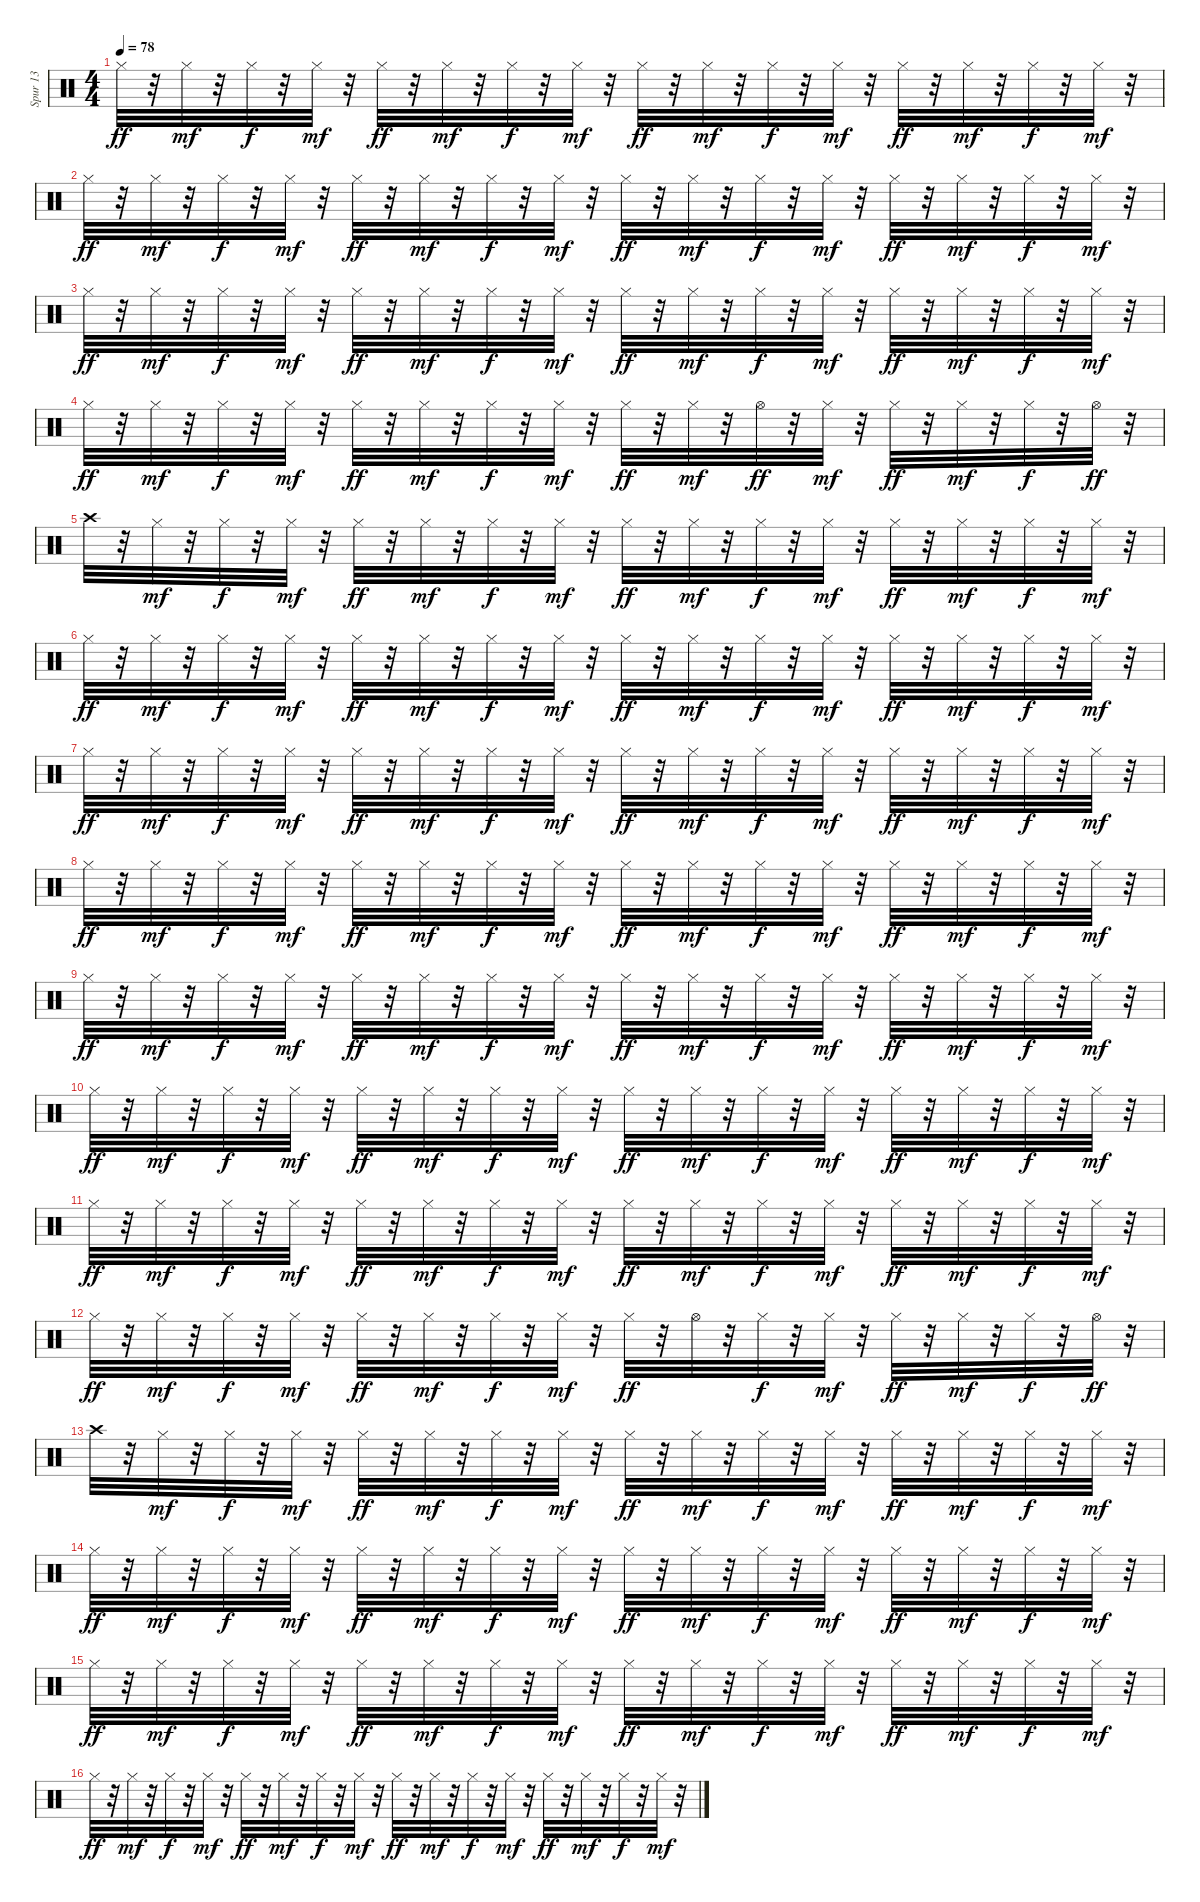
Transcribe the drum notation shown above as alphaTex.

\track ("Spur 13" "Spur 13") {instrument percussion}
\staff {score}
\articulation defaults
\ts (4 4)
\tempo 78
\clef neutral
\ks c "Hi-Hat (closed)".32{dy ff}
r.32 "Hi-Hat (closed)".32{dy mf} r.32 "Hi-Hat (closed)".32{dy f} r.32 "Hi-Hat (closed)".32{dy mf} r.32 "Hi-Hat (closed)".32{dy ff} r.32 "Hi-Hat (closed)".32{dy mf} r.32 "Hi-Hat (closed)".32{dy f} r.32 "Hi-Hat (closed)".32{dy mf} r.32 "Hi-Hat (closed)".32{dy ff} r.32 "Hi-Hat (closed)".32{dy mf} r.32 "Hi-Hat (closed)".32{dy f} r.32 "Hi-Hat (closed)".32{dy mf} r.32 "Hi-Hat (closed)".32{dy ff} r.32 "Hi-Hat (closed)".32{dy mf} r.32 "Hi-Hat (closed)".32{dy f} r.32 "Hi-Hat (closed)".32{dy mf} r.32 |
"Hi-Hat (closed)".32{dy ff} r.32 "Hi-Hat (closed)".32{dy mf} r.32 "Hi-Hat (closed)".32{dy f} r.32 "Hi-Hat (closed)".32{dy mf} r.32 "Hi-Hat (closed)".32{dy ff} r.32 "Hi-Hat (closed)".32{dy mf} r.32 "Hi-Hat (closed)".32{dy f} r.32 "Hi-Hat (closed)".32{dy mf} r.32 "Hi-Hat (closed)".32{dy ff} r.32 "Hi-Hat (closed)".32{dy mf} r.32 "Hi-Hat (closed)".32{dy f} r.32 "Hi-Hat (closed)".32{dy mf} r.32 "Hi-Hat (closed)".32{dy ff} r.32 "Hi-Hat (closed)".32{dy mf} r.32 "Hi-Hat (closed)".32{dy f} r.32 "Hi-Hat (closed)".32{dy mf} r.32 |
"Hi-Hat (closed)".32{dy ff} r.32 "Hi-Hat (closed)".32{dy mf} r.32 "Hi-Hat (closed)".32{dy f} r.32 "Hi-Hat (closed)".32{dy mf} r.32 "Hi-Hat (closed)".32{dy ff} r.32 "Hi-Hat (closed)".32{dy mf} r.32 "Hi-Hat (closed)".32{dy f} r.32 "Hi-Hat (closed)".32{dy mf} r.32 "Hi-Hat (closed)".32{dy ff} r.32 "Hi-Hat (closed)".32{dy mf} r.32 "Hi-Hat (closed)".32{dy f} r.32 "Hi-Hat (closed)".32{dy mf} r.32 "Hi-Hat (closed)".32{dy ff} r.32 "Hi-Hat (closed)".32{dy mf} r.32 "Hi-Hat (closed)".32{dy f} r.32 "Hi-Hat (closed)".32{dy mf} r.32 |
"Hi-Hat (closed)".32{dy ff} r.32 "Hi-Hat (closed)".32{dy mf} r.32 "Hi-Hat (closed)".32{dy f} r.32 "Hi-Hat (closed)".32{dy mf} r.32 "Hi-Hat (closed)".32{dy ff} r.32 "Hi-Hat (closed)".32{dy mf} r.32 "Hi-Hat (closed)".32{dy f} r.32 "Hi-Hat (closed)".32{dy mf} r.32 "Hi-Hat (closed)".32{dy ff} r.32 "Hi-Hat (closed)".32{dy mf} r.32 "Hi-Hat (open)".32{dy ff} r.32 "Hi-Hat (closed)".32{dy mf} r.32 "Hi-Hat (closed)".32{dy ff} r.32 "Hi-Hat (closed)".32{dy mf} r.32 "Hi-Hat (closed)".32{dy f} r.32 "Hi-Hat (open)".32{dy ff} r.32 |
"Crash high (hit)".32 r.32 "Hi-Hat (closed)".32{dy mf} r.32 "Hi-Hat (closed)".32{dy f} r.32 "Hi-Hat (closed)".32{dy mf} r.32 "Hi-Hat (closed)".32{dy ff} r.32 "Hi-Hat (closed)".32{dy mf} r.32 "Hi-Hat (closed)".32{dy f} r.32 "Hi-Hat (closed)".32{dy mf} r.32 "Hi-Hat (closed)".32{dy ff} r.32 "Hi-Hat (closed)".32{dy mf} r.32 "Hi-Hat (closed)".32{dy f} r.32 "Hi-Hat (closed)".32{dy mf} r.32 "Hi-Hat (closed)".32{dy ff} r.32 "Hi-Hat (closed)".32{dy mf} r.32 "Hi-Hat (closed)".32{dy f} r.32 "Hi-Hat (closed)".32{dy mf} r.32 |
"Hi-Hat (closed)".32{dy ff} r.32 "Hi-Hat (closed)".32{dy mf} r.32 "Hi-Hat (closed)".32{dy f} r.32 "Hi-Hat (closed)".32{dy mf} r.32 "Hi-Hat (closed)".32{dy ff} r.32 "Hi-Hat (closed)".32{dy mf} r.32 "Hi-Hat (closed)".32{dy f} r.32 "Hi-Hat (closed)".32{dy mf} r.32 "Hi-Hat (closed)".32{dy ff} r.32 "Hi-Hat (closed)".32{dy mf} r.32 "Hi-Hat (closed)".32{dy f} r.32 "Hi-Hat (closed)".32{dy mf} r.32 "Hi-Hat (closed)".32{dy ff} r.32 "Hi-Hat (closed)".32{dy mf} r.32 "Hi-Hat (closed)".32{dy f} r.32 "Hi-Hat (closed)".32{dy mf} r.32 |
"Hi-Hat (closed)".32{dy ff} r.32 "Hi-Hat (closed)".32{dy mf} r.32 "Hi-Hat (closed)".32{dy f} r.32 "Hi-Hat (closed)".32{dy mf} r.32 "Hi-Hat (closed)".32{dy ff} r.32 "Hi-Hat (closed)".32{dy mf} r.32 "Hi-Hat (closed)".32{dy f} r.32 "Hi-Hat (closed)".32{dy mf} r.32 "Hi-Hat (closed)".32{dy ff} r.32 "Hi-Hat (closed)".32{dy mf} r.32 "Hi-Hat (closed)".32{dy f} r.32 "Hi-Hat (closed)".32{dy mf} r.32 "Hi-Hat (closed)".32{dy ff} r.32 "Hi-Hat (closed)".32{dy mf} r.32 "Hi-Hat (closed)".32{dy f} r.32 "Hi-Hat (closed)".32{dy mf} r.32 |
"Hi-Hat (closed)".32{dy ff} r.32 "Hi-Hat (closed)".32{dy mf} r.32 "Hi-Hat (closed)".32{dy f} r.32 "Hi-Hat (closed)".32{dy mf} r.32 "Hi-Hat (closed)".32{dy ff} r.32 "Hi-Hat (closed)".32{dy mf} r.32 "Hi-Hat (closed)".32{dy f} r.32 "Hi-Hat (closed)".32{dy mf} r.32 "Hi-Hat (closed)".32{dy ff} r.32 "Hi-Hat (closed)".32{dy mf} r.32 "Hi-Hat (closed)".32{dy f} r.32 "Hi-Hat (closed)".32{dy mf} r.32 "Hi-Hat (closed)".32{dy ff} r.32 "Hi-Hat (closed)".32{dy mf} r.32 "Hi-Hat (closed)".32{dy f} r.32 "Hi-Hat (closed)".32{dy mf} r.32 |
"Hi-Hat (closed)".32{dy ff} r.32 "Hi-Hat (closed)".32{dy mf} r.32 "Hi-Hat (closed)".32{dy f} r.32 "Hi-Hat (closed)".32{dy mf} r.32 "Hi-Hat (closed)".32{dy ff} r.32 "Hi-Hat (closed)".32{dy mf} r.32 "Hi-Hat (closed)".32{dy f} r.32 "Hi-Hat (closed)".32{dy mf} r.32 "Hi-Hat (closed)".32{dy ff} r.32 "Hi-Hat (closed)".32{dy mf} r.32 "Hi-Hat (closed)".32{dy f} r.32 "Hi-Hat (closed)".32{dy mf} r.32 "Hi-Hat (closed)".32{dy ff} r.32 "Hi-Hat (closed)".32{dy mf} r.32 "Hi-Hat (closed)".32{dy f} r.32 "Hi-Hat (closed)".32{dy mf} r.32 |
"Hi-Hat (closed)".32{dy ff} r.32 "Hi-Hat (closed)".32{dy mf} r.32 "Hi-Hat (closed)".32{dy f} r.32 "Hi-Hat (closed)".32{dy mf} r.32 "Hi-Hat (closed)".32{dy ff} r.32 "Hi-Hat (closed)".32{dy mf} r.32 "Hi-Hat (closed)".32{dy f} r.32 "Hi-Hat (closed)".32{dy mf} r.32 "Hi-Hat (closed)".32{dy ff} r.32 "Hi-Hat (closed)".32{dy mf} r.32 "Hi-Hat (closed)".32{dy f} r.32 "Hi-Hat (closed)".32{dy mf} r.32 "Hi-Hat (closed)".32{dy ff} r.32 "Hi-Hat (closed)".32{dy mf} r.32 "Hi-Hat (closed)".32{dy f} r.32 "Hi-Hat (closed)".32{dy mf} r.32 |
"Hi-Hat (closed)".32{dy ff} r.32 "Hi-Hat (closed)".32{dy mf} r.32 "Hi-Hat (closed)".32{dy f} r.32 "Hi-Hat (closed)".32{dy mf} r.32 "Hi-Hat (closed)".32{dy ff} r.32 "Hi-Hat (closed)".32{dy mf} r.32 "Hi-Hat (closed)".32{dy f} r.32 "Hi-Hat (closed)".32{dy mf} r.32 "Hi-Hat (closed)".32{dy ff} r.32 "Hi-Hat (closed)".32{dy mf} r.32 "Hi-Hat (closed)".32{dy f} r.32 "Hi-Hat (closed)".32{dy mf} r.32 "Hi-Hat (closed)".32{dy ff} r.32 "Hi-Hat (closed)".32{dy mf} r.32 "Hi-Hat (closed)".32{dy f} r.32 "Hi-Hat (closed)".32{dy mf} r.32 |
"Hi-Hat (closed)".32{dy ff} r.32 "Hi-Hat (closed)".32{dy mf} r.32 "Hi-Hat (closed)".32{dy f} r.32 "Hi-Hat (closed)".32{dy mf} r.32 "Hi-Hat (closed)".32{dy ff} r.32 "Hi-Hat (closed)".32{dy mf} r.32 "Hi-Hat (closed)".32{dy f} r.32 "Hi-Hat (closed)".32{dy mf} r.32 "Hi-Hat (closed)".32{dy ff} r.32 "Hi-Hat (open)".32 r.32 "Hi-Hat (closed)".32{dy f} r.32 "Hi-Hat (closed)".32{dy mf} r.32 "Hi-Hat (closed)".32{dy ff} r.32 "Hi-Hat (closed)".32{dy mf} r.32 "Hi-Hat (closed)".32{dy f} r.32 "Hi-Hat (open)".32{dy ff} r.32 |
"Crash high (hit)".32 r.32 "Hi-Hat (closed)".32{dy mf} r.32 "Hi-Hat (closed)".32{dy f} r.32 "Hi-Hat (closed)".32{dy mf} r.32 "Hi-Hat (closed)".32{dy ff} r.32 "Hi-Hat (closed)".32{dy mf} r.32 "Hi-Hat (closed)".32{dy f} r.32 "Hi-Hat (closed)".32{dy mf} r.32 "Hi-Hat (closed)".32{dy ff} r.32 "Hi-Hat (closed)".32{dy mf} r.32 "Hi-Hat (closed)".32{dy f} r.32 "Hi-Hat (closed)".32{dy mf} r.32 "Hi-Hat (closed)".32{dy ff} r.32 "Hi-Hat (closed)".32{dy mf} r.32 "Hi-Hat (closed)".32{dy f} r.32 "Hi-Hat (closed)".32{dy mf} r.32 |
"Hi-Hat (closed)".32{dy ff} r.32 "Hi-Hat (closed)".32{dy mf} r.32 "Hi-Hat (closed)".32{dy f} r.32 "Hi-Hat (closed)".32{dy mf} r.32 "Hi-Hat (closed)".32{dy ff} r.32 "Hi-Hat (closed)".32{dy mf} r.32 "Hi-Hat (closed)".32{dy f} r.32 "Hi-Hat (closed)".32{dy mf} r.32 "Hi-Hat (closed)".32{dy ff} r.32 "Hi-Hat (closed)".32{dy mf} r.32 "Hi-Hat (closed)".32{dy f} r.32 "Hi-Hat (closed)".32{dy mf} r.32 "Hi-Hat (closed)".32{dy ff} r.32 "Hi-Hat (closed)".32{dy mf} r.32 "Hi-Hat (closed)".32{dy f} r.32 "Hi-Hat (closed)".32{dy mf} r.32 |
"Hi-Hat (closed)".32{dy ff} r.32 "Hi-Hat (closed)".32{dy mf} r.32 "Hi-Hat (closed)".32{dy f} r.32 "Hi-Hat (closed)".32{dy mf} r.32 "Hi-Hat (closed)".32{dy ff} r.32 "Hi-Hat (closed)".32{dy mf} r.32 "Hi-Hat (closed)".32{dy f} r.32 "Hi-Hat (closed)".32{dy mf} r.32 "Hi-Hat (closed)".32{dy ff} r.32 "Hi-Hat (closed)".32{dy mf} r.32 "Hi-Hat (closed)".32{dy f} r.32 "Hi-Hat (closed)".32{dy mf} r.32 "Hi-Hat (closed)".32{dy ff} r.32 "Hi-Hat (closed)".32{dy mf} r.32 "Hi-Hat (closed)".32{dy f} r.32 "Hi-Hat (closed)".32{dy mf} r.32 |
"Hi-Hat (closed)".32{dy ff} r.32 "Hi-Hat (closed)".32{dy mf} r.32 "Hi-Hat (closed)".32{dy f} r.32 "Hi-Hat (closed)".32{dy mf} r.32 "Hi-Hat (closed)".32{dy ff} r.32 "Hi-Hat (closed)".32{dy mf} r.32 "Hi-Hat (closed)".32{dy f} r.32 "Hi-Hat (closed)".32{dy mf} r.32 "Hi-Hat (closed)".32{dy ff} r.32 "Hi-Hat (closed)".32{dy mf} r.32 "Hi-Hat (closed)".32{dy f} r.32 "Hi-Hat (closed)".32{dy mf} r.32 "Hi-Hat (closed)".32{dy ff} r.32 "Hi-Hat (closed)".32{dy mf} r.32 "Hi-Hat (closed)".32{dy f} r.32 "Hi-Hat (closed)".32{dy mf} r.32
